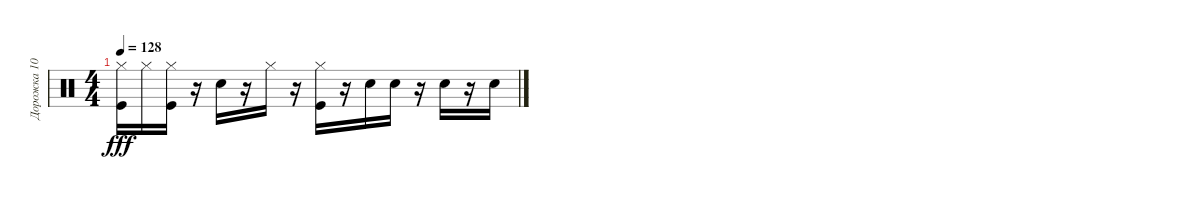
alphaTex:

\track ("Дорожка 10" "Дорожка 10") {instrument percussion}
\staff {score}
\articulation defaults
\ts (4 4)
\tempo 128
\clef neutral
\ks c
("Kick (hit)" "Hi-Hat (closed)").16{dy fff} "Hi-Hat (closed)".16 ("Kick (hit)" "Hi-Hat (closed)").16 r.16 "Electric Snare (hit)".16 r.16 "Hi-Hat (closed)".16 r.16 ("Kick (hit)" "Hi-Hat (closed)").16 r.16 "Electric Snare (hit)".16 "Electric Snare (hit)".16 r.16 "Electric Snare (hit)".16 r.16 "Electric Snare (hit)".16
